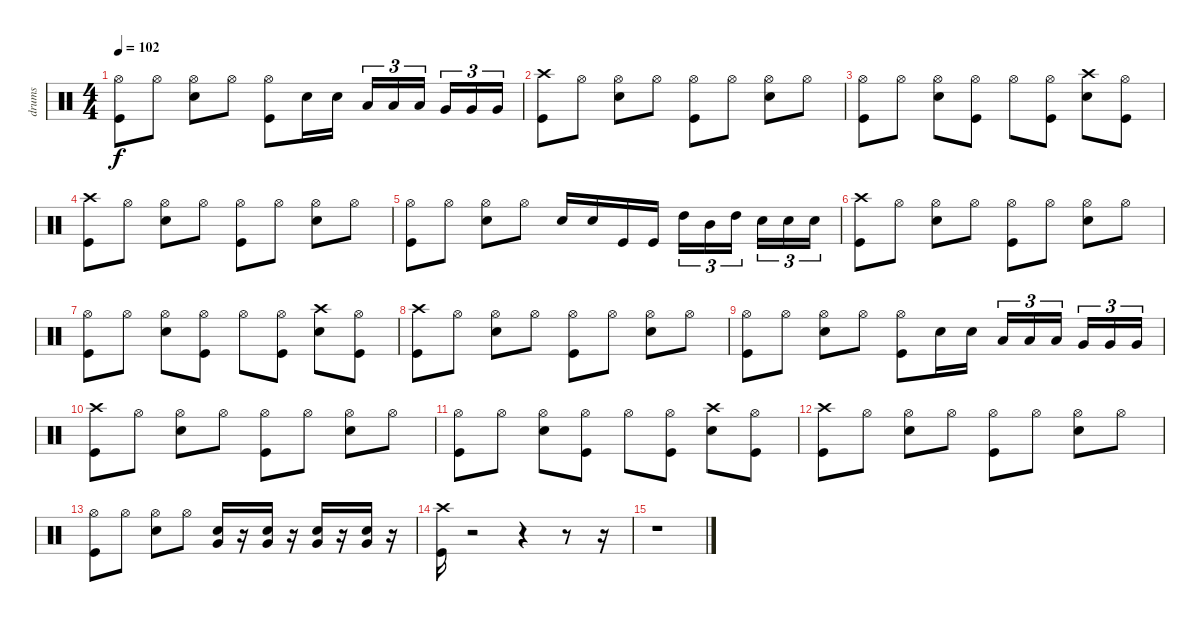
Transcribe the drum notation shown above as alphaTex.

\track ("drums" "drums") {instrument percussion}
\staff {score}
\articulation defaults
\ts (4 4)
\tempo 102
\clef neutral
\ks c
("Hi-Hat (open)" "Kick (hit)").8{dy f} "Hi-Hat (open)".8 ("Hi-Hat (open)" "Snare (hit) 2").8 "Hi-Hat (open)".8 ("Kick (hit)" "Hi-Hat (open)").8 "Snare (hit) 2".16 "Snare (hit) 2".16 "Low Tom (hit)".16{tu (3 2)} "Low Tom (hit)".16{tu (3 2)} "Low Tom (hit)".16{tu (3 2)} "Very Low Tom (hit)".16{tu (3 2)} "Very Low Tom (hit)".16{tu (3 2)} "Very Low Tom (hit)".16{tu (3 2)} |
("Crash high (hit)" "Kick (hit)").8 "Hi-Hat (open)".8 ("Hi-Hat (open)" "Snare (hit) 2").8 "Hi-Hat (open)".8 ("Hi-Hat (open)" "Kick (hit)").8 "Hi-Hat (open)".8 ("Hi-Hat (open)" "Snare (hit) 2").8 "Hi-Hat (open)".8 |
("Hi-Hat (open)" "Kick (hit)").8 "Hi-Hat (open)".8 ("Hi-Hat (open)" "Snare (hit) 2").8 ("Hi-Hat (open)" "Kick (hit)").8 "Hi-Hat (open)".8 ("Kick (hit)" "Hi-Hat (open)").8 ("Crash high (hit)" "Snare (hit) 2").8 ("Kick (hit)" "Hi-Hat (open)").8 |
("Crash high (hit)" "Kick (hit)").8 "Hi-Hat (open)".8 ("Hi-Hat (open)" "Snare (hit) 2").8 "Hi-Hat (open)".8 ("Hi-Hat (open)" "Kick (hit)").8 "Hi-Hat (open)".8 ("Hi-Hat (open)" "Snare (hit) 2").8 "Hi-Hat (open)".8 |
("Hi-Hat (open)" "Kick (hit)").8 "Hi-Hat (open)".8 ("Hi-Hat (open)" "Snare (hit) 2").8 "Hi-Hat (open)".8 "Snare (hit) 2".16 "Snare (hit) 2".16 "Kick (hit)".16 "Kick (hit)".16 "High Tom (hit)".16{tu (3 2)} "Mid Tom (hit)".16{tu (3 2)} "High Tom (hit)".16{tu (3 2)} "Snare (hit) 2".16{tu (3 2)} "Snare (hit) 2".16{tu (3 2)} "Snare (hit) 2".16{tu (3 2)} |
("Crash high (hit)" "Kick (hit)").8 "Hi-Hat (open)".8 ("Hi-Hat (open)" "Snare (hit) 2").8 "Hi-Hat (open)".8 ("Hi-Hat (open)" "Kick (hit)").8 "Hi-Hat (open)".8 ("Hi-Hat (open)" "Snare (hit) 2").8 "Hi-Hat (open)".8 |
("Hi-Hat (open)" "Kick (hit)").8 "Hi-Hat (open)".8 ("Hi-Hat (open)" "Snare (hit) 2").8 ("Hi-Hat (open)" "Kick (hit)").8 "Hi-Hat (open)".8 ("Kick (hit)" "Hi-Hat (open)").8 ("Crash high (hit)" "Snare (hit) 2").8 ("Kick (hit)" "Hi-Hat (open)").8 |
("Crash high (hit)" "Kick (hit)").8 "Hi-Hat (open)".8 ("Hi-Hat (open)" "Snare (hit) 2").8 "Hi-Hat (open)".8 ("Hi-Hat (open)" "Kick (hit)").8 "Hi-Hat (open)".8 ("Hi-Hat (open)" "Snare (hit) 2").8 "Hi-Hat (open)".8 |
("Hi-Hat (open)" "Kick (hit)").8 "Hi-Hat (open)".8 ("Hi-Hat (open)" "Snare (hit) 2").8 "Hi-Hat (open)".8 ("Kick (hit)" "Hi-Hat (open)").8 "Snare (hit) 2".16 "Snare (hit) 2".16 "Low Tom (hit)".16{tu (3 2)} "Low Tom (hit)".16{tu (3 2)} "Low Tom (hit)".16{tu (3 2)} "Very Low Tom (hit)".16{tu (3 2)} "Very Low Tom (hit)".16{tu (3 2)} "Very Low Tom (hit)".16{tu (3 2)} |
("Crash high (hit)" "Kick (hit)").8 "Hi-Hat (open)".8 ("Hi-Hat (open)" "Snare (hit) 2").8 "Hi-Hat (open)".8 ("Hi-Hat (open)" "Kick (hit)").8 "Hi-Hat (open)".8 ("Hi-Hat (open)" "Snare (hit) 2").8 "Hi-Hat (open)".8 |
("Hi-Hat (open)" "Kick (hit)").8 "Hi-Hat (open)".8 ("Hi-Hat (open)" "Snare (hit) 2").8 ("Hi-Hat (open)" "Kick (hit)").8 "Hi-Hat (open)".8 ("Kick (hit)" "Hi-Hat (open)").8 ("Crash high (hit)" "Snare (hit) 2").8 ("Kick (hit)" "Hi-Hat (open)").8 |
("Crash high (hit)" "Kick (hit)").8 "Hi-Hat (open)".8 ("Hi-Hat (open)" "Snare (hit) 2").8 "Hi-Hat (open)".8 ("Hi-Hat (open)" "Kick (hit)").8 "Hi-Hat (open)".8 ("Hi-Hat (open)" "Snare (hit) 2").8 "Hi-Hat (open)".8 |
("Hi-Hat (open)" "Kick (hit)").8 "Hi-Hat (open)".8 ("Hi-Hat (open)" "Snare (hit) 2").8 "Hi-Hat (open)".8 ("Snare (hit) 2" "Very Low Tom (hit)").16 r.16 ("Snare (hit) 2" "Very Low Tom (hit)").16 r.16 ("Snare (hit) 2" "Very Low Tom (hit)").16 r.16 ("Snare (hit) 2" "Very Low Tom (hit)").16 r.16 |
("Crash high (hit)" "Kick (hit)").16 r.2 r.4 r.8 r.16 |
r.1
